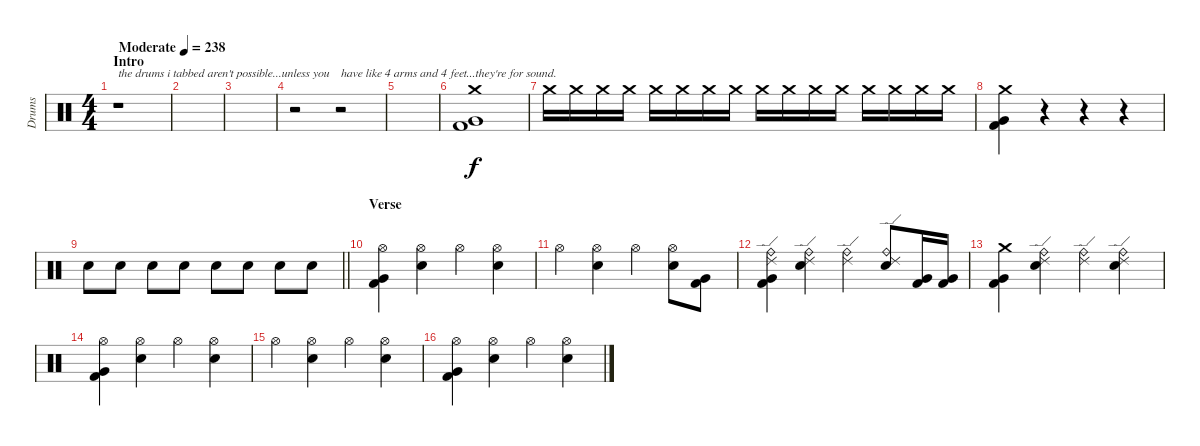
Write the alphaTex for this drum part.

\track ("Drums" "Drums") {instrument percussion}
\staff {score}
\articulation defaults
\ts (4 4)
\section ("" "Intro")
\tempo (238 "Moderate")
\clef neutral
\ks c
r.1{txt "the drums i tabbed aren't possible...unless you " dy f} |
|
|
r.2 r.2{txt "have like 4 arms and 4 feet...they're for sound."} |
|
("Crash medium (hit)" "Very Low Tom (hit)" "Kick (hit) 2").1 |
"Crash medium (hit)".16 "Crash medium (hit)".16 "Crash medium (hit)".16 "Crash medium (hit)".16 "Crash medium (hit)".16 "Crash medium (hit)".16 "Crash medium (hit)".16 "Crash medium (hit)".16 "Crash medium (hit)".16 "Crash medium (hit)".16 "Crash medium (hit)".16 "Crash medium (hit)".16 "Crash medium (hit)".16 "Crash medium (hit)".16 "Crash medium (hit)".16 "Crash medium (hit)".16 |
("Crash medium (hit)" "Very Low Tom (hit)" "Kick (hit) 2").4 r.4{volume 0} r.4 r.4 |
\barLineRight lightlight "Snare (hit) 2".8{volume 16} "Snare (hit) 2".8 "Snare (hit) 2".8 "Snare (hit) 2".8 "Snare (hit) 2".8 "Snare (hit) 2".8 "Snare (hit) 2".8 "Snare (hit) 2".8
|
\section ("" "Verse")
("Hi-Hat (open)" "Very Low Tom (hit)" "Kick (hit) 2").4 ("Hi-Hat (open)" "Snare (hit) 2").4 "Hi-Hat (open)".4 ("Hi-Hat (open)" "Snare (hit) 2").4 |
"Hi-Hat (open)".4 ("Hi-Hat (open)" "Snare (hit) 2").4 "Hi-Hat (open)".4 ("Hi-Hat (open)" "Snare (hit) 2").8 ("Very Low Tom (hit)" "Kick (hit) 2").8 |
("Ride (bell)" "Ride (edge) 2" "Very Low Tom (hit)" "Kick (hit) 2").4 ("Ride (bell)" "Ride (edge) 2" "Snare (hit) 2").4 ("Ride (bell)" "Ride (edge) 2").4 ("Ride (bell)" "Ride (edge) 2" "Snare (hit) 2").8 ("Very Low Tom (hit)" "Kick (hit) 2").16 ("Very Low Tom (hit)" "Kick (hit) 2").16 |
("Crash medium (hit)" "Very Low Tom (hit)" "Kick (hit) 2").4 ("Ride (bell)" "Ride (edge) 2" "Snare (hit) 2").4 ("Ride (bell)" "Ride (edge) 2").4 ("Ride (bell)" "Ride (edge) 2" "Snare (hit) 2").4 |
("Hi-Hat (open)" "Very Low Tom (hit)" "Kick (hit) 2").4 ("Hi-Hat (open)" "Snare (hit) 2").4 "Hi-Hat (open)".4 ("Hi-Hat (open)" "Snare (hit) 2").4 |
"Hi-Hat (open)".4 ("Hi-Hat (open)" "Snare (hit) 2").4 "Hi-Hat (open)".4 ("Hi-Hat (open)" "Snare (hit) 2").4 |
("Hi-Hat (open)" "Very Low Tom (hit)" "Kick (hit) 2").4 ("Hi-Hat (open)" "Snare (hit) 2").4 "Hi-Hat (open)".4 ("Hi-Hat (open)" "Snare (hit) 2").4
